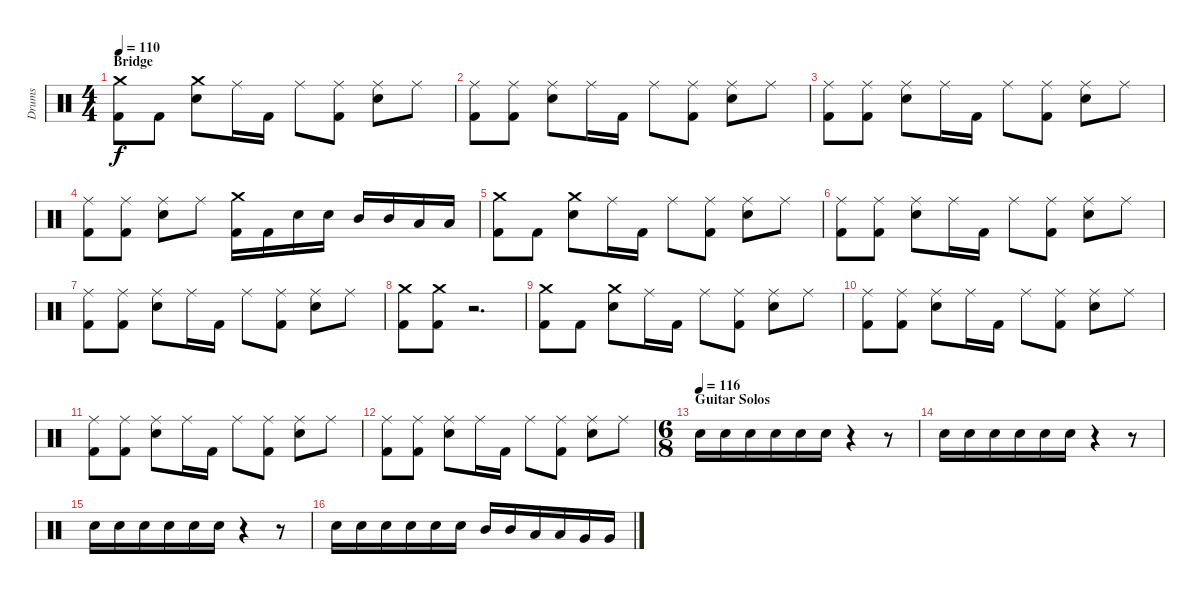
\track ("Drums" "Drums") {instrument percussion}
\staff {score}
\articulation defaults
\ts (4 4)
\section ("" "Bridge")
\tempo 110
\clef neutral
\ks c
("Crash medium (hit)" "Kick (hit) 2").8{dy f} "Kick (hit) 2".8 ("Crash medium (hit)" "Electric Snare (hit)").8 "Ride (middle)".16 "Kick (hit) 2".16 "Ride (middle)".8 ("Ride (middle)" "Kick (hit) 2").8 ("Ride (middle)" "Electric Snare (hit)").8 "Ride (middle)".8 |
("Ride (middle)" "Kick (hit) 2").8 ("Ride (middle)" "Kick (hit) 2").8 ("Ride (middle)" "Electric Snare (hit)").8 "Ride (middle)".16 "Kick (hit) 2".16 "Ride (middle)".8 ("Ride (middle)" "Kick (hit) 2").8 ("Ride (middle)" "Electric Snare (hit)").8 "Ride (middle)".8 |
("Ride (middle)" "Kick (hit) 2").8 ("Ride (middle)" "Kick (hit) 2").8 ("Ride (middle)" "Electric Snare (hit)").8 "Ride (middle)".16 "Kick (hit) 2".16 "Ride (middle)".8 ("Ride (middle)" "Kick (hit) 2").8 ("Ride (middle)" "Electric Snare (hit)").8 "Ride (middle)".8 |
("Ride (middle)" "Kick (hit) 2").8 ("Ride (middle)" "Kick (hit) 2").8 ("Ride (middle)" "Electric Snare (hit)").8 "Ride (middle)".8 ("Crash medium (hit)" "Kick (hit) 2").16 "Kick (hit) 2".16 "Electric Snare (hit)".16 "Electric Snare (hit)".16 "Mid Tom (hit)".16 "Mid Tom (hit)".16 "Low Tom (hit)".16 "Low Tom (hit)".16 |
("Crash medium (hit)" "Kick (hit) 2").8 "Kick (hit) 2".8 ("Crash medium (hit)" "Electric Snare (hit)").8 "Ride (middle)".16 "Kick (hit) 2".16 "Ride (middle)".8 ("Ride (middle)" "Kick (hit) 2").8 ("Ride (middle)" "Electric Snare (hit)").8 "Ride (middle)".8 |
("Ride (middle)" "Kick (hit) 2").8 ("Ride (middle)" "Kick (hit) 2").8 ("Ride (middle)" "Electric Snare (hit)").8 "Ride (middle)".16 "Kick (hit) 2".16 "Ride (middle)".8 ("Ride (middle)" "Kick (hit) 2").8 ("Ride (middle)" "Electric Snare (hit)").8 "Ride (middle)".8 |
("Ride (middle)" "Kick (hit) 2").8 ("Ride (middle)" "Kick (hit) 2").8 ("Ride (middle)" "Electric Snare (hit)").8 "Ride (middle)".16 "Kick (hit) 2".16 "Ride (middle)".8 ("Ride (middle)" "Kick (hit) 2").8 ("Ride (middle)" "Electric Snare (hit)").8 "Ride (middle)".8 |
("Crash medium (hit)" "Kick (hit) 2").8 ("Crash medium (hit)" "Kick (hit) 2").8 r.2{d} |
("Crash medium (hit)" "Kick (hit) 2").8 "Kick (hit) 2".8 ("Crash medium (hit)" "Electric Snare (hit)").8 "Ride (middle)".16 "Kick (hit) 2".16 "Ride (middle)".8 ("Ride (middle)" "Kick (hit) 2").8 ("Ride (middle)" "Electric Snare (hit)").8 "Ride (middle)".8 |
("Ride (middle)" "Kick (hit) 2").8 ("Ride (middle)" "Kick (hit) 2").8 ("Ride (middle)" "Electric Snare (hit)").8 "Ride (middle)".16 "Kick (hit) 2".16 "Ride (middle)".8 ("Ride (middle)" "Kick (hit) 2").8 ("Ride (middle)" "Electric Snare (hit)").8 "Ride (middle)".8 |
("Ride (middle)" "Kick (hit) 2").8 ("Ride (middle)" "Kick (hit) 2").8 ("Ride (middle)" "Electric Snare (hit)").8 "Ride (middle)".16 "Kick (hit) 2".16 "Ride (middle)".8 ("Ride (middle)" "Kick (hit) 2").8 ("Ride (middle)" "Electric Snare (hit)").8 "Ride (middle)".8 |
("Ride (middle)" "Kick (hit) 2").8 ("Ride (middle)" "Kick (hit) 2").8 ("Ride (middle)" "Electric Snare (hit)").8 "Ride (middle)".16 "Kick (hit) 2".16 "Ride (middle)".8 ("Ride (middle)" "Kick (hit) 2").8 ("Ride (middle)" "Electric Snare (hit)").8 "Ride (middle)".8 |
\ts (6 8)
\section ("" "Guitar Solos")
\tempo (116)
"Electric Snare (hit)".16 "Electric Snare (hit)".16 "Electric Snare (hit)".16 "Electric Snare (hit)".16 "Electric Snare (hit)".16 "Electric Snare (hit)".16 r.4 r.8 |
"Electric Snare (hit)".16 "Electric Snare (hit)".16 "Electric Snare (hit)".16 "Electric Snare (hit)".16 "Electric Snare (hit)".16 "Electric Snare (hit)".16 r.4 r.8 |
"Electric Snare (hit)".16 "Electric Snare (hit)".16 "Electric Snare (hit)".16 "Electric Snare (hit)".16 "Electric Snare (hit)".16 "Electric Snare (hit)".16 r.4 r.8 |
"Electric Snare (hit)".16 "Electric Snare (hit)".16 "Electric Snare (hit)".16 "Electric Snare (hit)".16 "Electric Snare (hit)".16 "Electric Snare (hit)".16 "Mid Tom (hit)".16 "Mid Tom (hit)".16 "Low Tom (hit)".16 "Low Tom (hit)".16 "Very Low Tom (hit)".16 "Very Low Tom (hit)".16
